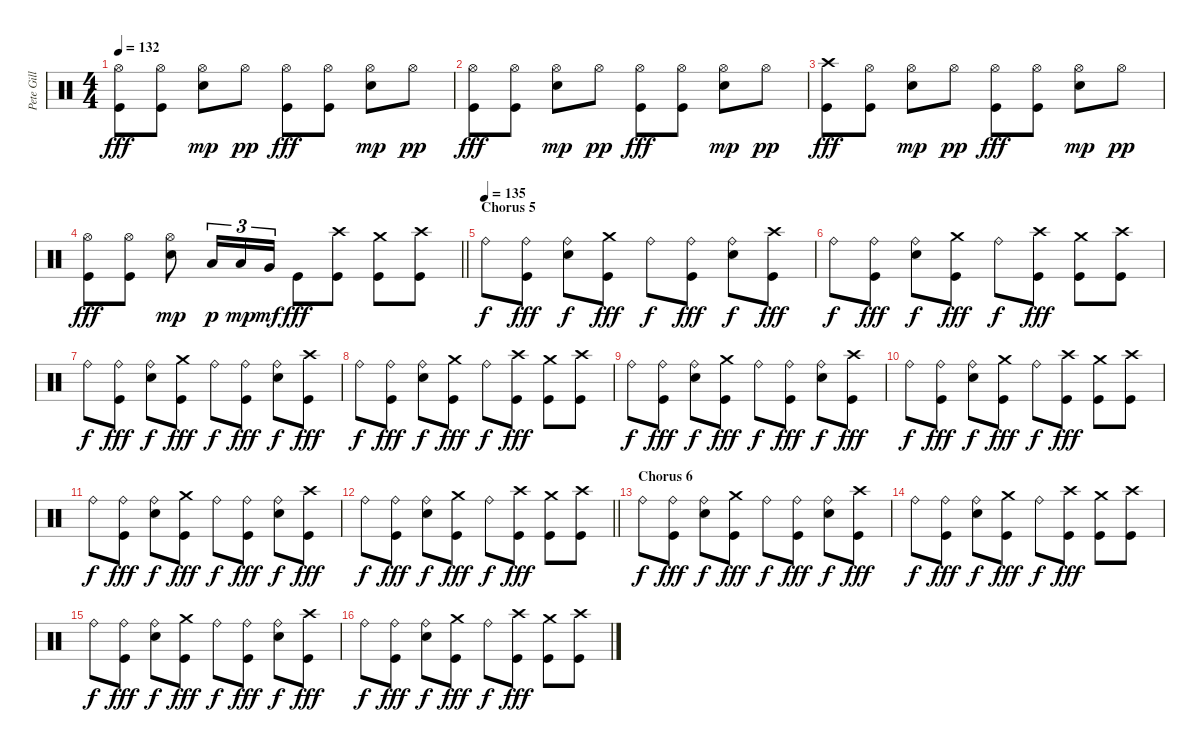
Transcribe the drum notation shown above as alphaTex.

\track ("Pete Gill" "Pete Gill") {instrument percussion}
\staff {score}
\articulation defaults
\ts (4 4)
\tempo 132
\clef neutral
\ks c
("Hi-Hat (open)" "Kick (hit)").8{dy fff} ("Hi-Hat (open)" "Kick (hit)").8 ("Hi-Hat (open)" "Electric Snare (hit)").8{dy mp} "Hi-Hat (open)".8{dy pp} ("Hi-Hat (open)" "Kick (hit)").8{dy fff} ("Hi-Hat (open)" "Kick (hit)").8 ("Hi-Hat (open)" "Electric Snare (hit)").8{dy mp} "Hi-Hat (open)".8{dy pp} |
("Hi-Hat (open)" "Kick (hit)").8{dy fff} ("Hi-Hat (open)" "Kick (hit)").8 ("Hi-Hat (open)" "Electric Snare (hit)").8{dy mp} "Hi-Hat (open)".8{dy pp} ("Hi-Hat (open)" "Kick (hit)").8{dy fff} ("Hi-Hat (open)" "Kick (hit)").8 ("Hi-Hat (open)" "Electric Snare (hit)").8{dy mp} "Hi-Hat (open)".8{dy pp} |
("Crash high (hit)" "Kick (hit)").8{dy fff} ("Hi-Hat (open)" "Kick (hit)").8 ("Hi-Hat (open)" "Electric Snare (hit)").8{dy mp} "Hi-Hat (open)".8{dy pp} ("Hi-Hat (open)" "Kick (hit)").8{dy fff} ("Hi-Hat (open)" "Kick (hit)").8 ("Hi-Hat (open)" "Electric Snare (hit)").8{dy mp} "Hi-Hat (open)".8{dy pp} |
\barLineRight lightlight
("Hi-Hat (open)" "Kick (hit)").8{dy fff} ("Hi-Hat (open)" "Kick (hit)").8 ("Hi-Hat (open)" "Electric Snare (hit)").8{dy mp} "Low Tom (hit)".16{tu (3 2) dy p} "Low Tom (hit)".16{tu (3 2) dy mp} "Very Low Tom (hit)".16{tu (3 2) dy mf} "Kick (hit)".8{dy fff} ("Crash high (hit)" "Kick (hit)").8 ("Crash medium (hit)" "Kick (hit)").8 ("Crash high (hit)" "Kick (hit)").8 |
\section ("" "Chorus 5")
\tempo (135)
"Ride (bell)".8{dy f} ("Ride (bell)" "Kick (hit)").8{dy fff} ("Ride (bell)" "Electric Snare (hit)").8{dy f} ("Crash medium (hit)" "Kick (hit)").8{dy fff} "Ride (bell)".8{dy f} ("Ride (bell)" "Kick (hit)").8{dy fff} ("Ride (bell)" "Electric Snare (hit)").8{dy f} ("Crash high (hit)" "Kick (hit)").8{dy fff} |
"Ride (bell)".8{dy f} ("Ride (bell)" "Kick (hit)").8{dy fff} ("Ride (bell)" "Electric Snare (hit)").8{dy f} ("Crash medium (hit)" "Kick (hit)").8{dy fff} "Ride (bell)".8{dy f} ("Crash high (hit)" "Kick (hit)").8{dy fff} ("Crash medium (hit)" "Kick (hit)").8 ("Crash high (hit)" "Kick (hit)").8 |
"Ride (bell)".8{dy f} ("Ride (bell)" "Kick (hit)").8{dy fff} ("Ride (bell)" "Electric Snare (hit)").8{dy f} ("Crash medium (hit)" "Kick (hit)").8{dy fff} "Ride (bell)".8{dy f} ("Ride (bell)" "Kick (hit)").8{dy fff} ("Ride (bell)" "Electric Snare (hit)").8{dy f} ("Crash high (hit)" "Kick (hit)").8{dy fff} |
"Ride (bell)".8{dy f} ("Ride (bell)" "Kick (hit)").8{dy fff} ("Ride (bell)" "Electric Snare (hit)").8{dy f} ("Crash medium (hit)" "Kick (hit)").8{dy fff} "Ride (bell)".8{dy f} ("Crash high (hit)" "Kick (hit)").8{dy fff} ("Crash medium (hit)" "Kick (hit)").8 ("Crash high (hit)" "Kick (hit)").8 |
"Ride (bell)".8{dy f} ("Ride (bell)" "Kick (hit)").8{dy fff} ("Ride (bell)" "Electric Snare (hit)").8{dy f} ("Crash medium (hit)" "Kick (hit)").8{dy fff} "Ride (bell)".8{dy f} ("Ride (bell)" "Kick (hit)").8{dy fff} ("Ride (bell)" "Electric Snare (hit)").8{dy f} ("Crash high (hit)" "Kick (hit)").8{dy fff} |
"Ride (bell)".8{dy f} ("Ride (bell)" "Kick (hit)").8{dy fff} ("Ride (bell)" "Electric Snare (hit)").8{dy f} ("Crash medium (hit)" "Kick (hit)").8{dy fff} "Ride (bell)".8{dy f} ("Crash high (hit)" "Kick (hit)").8{dy fff} ("Crash medium (hit)" "Kick (hit)").8 ("Crash high (hit)" "Kick (hit)").8 |
"Ride (bell)".8{dy f} ("Ride (bell)" "Kick (hit)").8{dy fff} ("Ride (bell)" "Electric Snare (hit)").8{dy f} ("Crash medium (hit)" "Kick (hit)").8{dy fff} "Ride (bell)".8{dy f} ("Ride (bell)" "Kick (hit)").8{dy fff} ("Ride (bell)" "Electric Snare (hit)").8{dy f} ("Crash high (hit)" "Kick (hit)").8{dy fff} |
\barLineRight lightlight "Ride (bell)".8{dy f}
("Ride (bell)" "Kick (hit)").8{dy fff} ("Ride (bell)" "Electric Snare (hit)").8{dy f} ("Crash medium (hit)" "Kick (hit)").8{dy fff} "Ride (bell)".8{dy f} ("Crash high (hit)" "Kick (hit)").8{dy fff} ("Crash medium (hit)" "Kick (hit)").8 ("Crash high (hit)" "Kick (hit)").8 |
\section ("" "Chorus 6")
"Ride (bell)".8{dy f} ("Ride (bell)" "Kick (hit)").8{dy fff} ("Ride (bell)" "Electric Snare (hit)").8{dy f} ("Crash medium (hit)" "Kick (hit)").8{dy fff} "Ride (bell)".8{dy f} ("Ride (bell)" "Kick (hit)").8{dy fff} ("Ride (bell)" "Electric Snare (hit)").8{dy f} ("Crash high (hit)" "Kick (hit)").8{dy fff} |
"Ride (bell)".8{dy f} ("Ride (bell)" "Kick (hit)").8{dy fff} ("Ride (bell)" "Electric Snare (hit)").8{dy f} ("Crash medium (hit)" "Kick (hit)").8{dy fff} "Ride (bell)".8{dy f} ("Crash high (hit)" "Kick (hit)").8{dy fff} ("Crash medium (hit)" "Kick (hit)").8 ("Crash high (hit)" "Kick (hit)").8 |
"Ride (bell)".8{dy f} ("Ride (bell)" "Kick (hit)").8{dy fff} ("Ride (bell)" "Electric Snare (hit)").8{dy f} ("Crash medium (hit)" "Kick (hit)").8{dy fff} "Ride (bell)".8{dy f} ("Ride (bell)" "Kick (hit)").8{dy fff} ("Ride (bell)" "Electric Snare (hit)").8{dy f} ("Crash high (hit)" "Kick (hit)").8{dy fff} |
"Ride (bell)".8{dy f} ("Ride (bell)" "Kick (hit)").8{dy fff} ("Ride (bell)" "Electric Snare (hit)").8{dy f} ("Crash medium (hit)" "Kick (hit)").8{dy fff} "Ride (bell)".8{dy f} ("Crash high (hit)" "Kick (hit)").8{dy fff} ("Crash medium (hit)" "Kick (hit)").8 ("Crash high (hit)" "Kick (hit)").8
